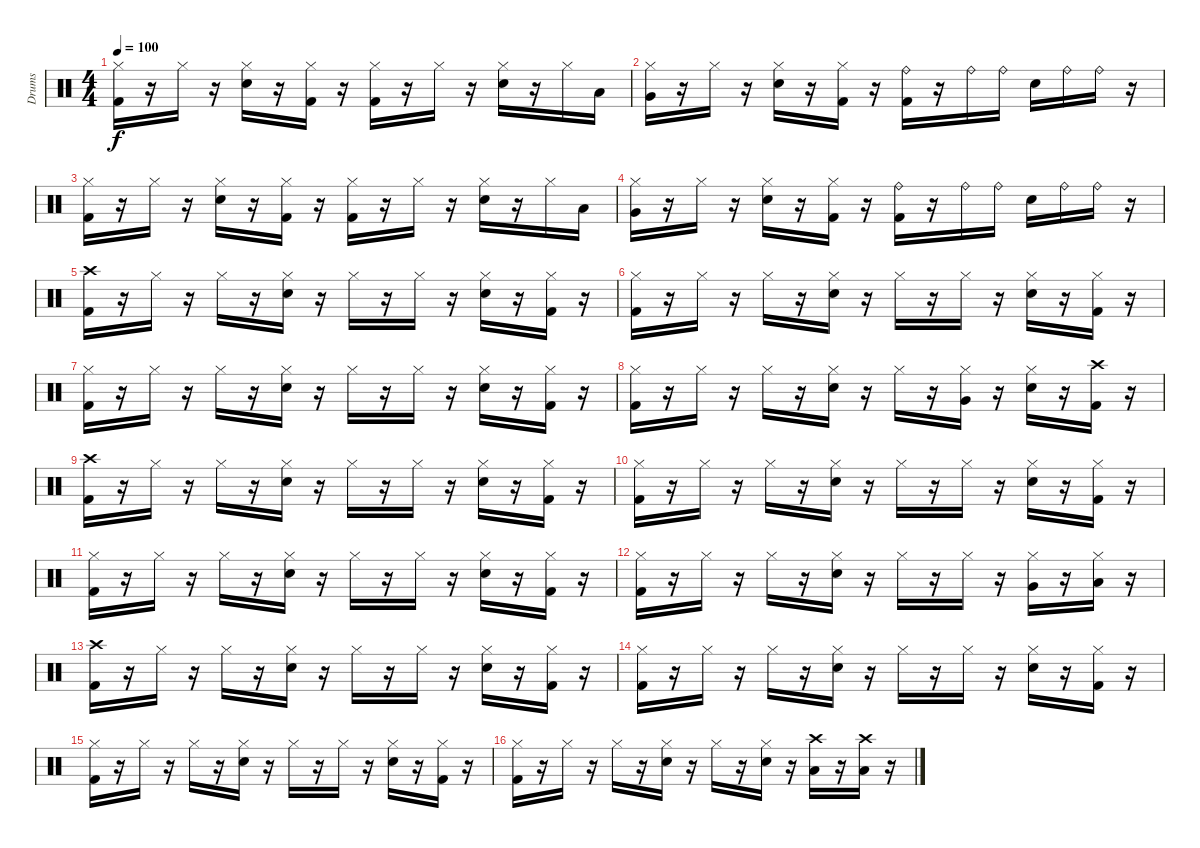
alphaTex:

\track ("Drums" "Drums") {instrument percussion}
\staff {score}
\articulation defaults
\ts (4 4)
\tempo 100
\clef neutral
\ks c
("Hi-Hat (closed)" "Kick (hit) 2").16{dy f} r.16 "Hi-Hat (closed)".16 r.16 ("Hi-Hat (closed)" "Snare (hit) 2").16 r.16 ("Hi-Hat (closed)" "Kick (hit) 2").16 r.16 ("Hi-Hat (closed)" "Kick (hit) 2").16 r.16 "Hi-Hat (closed)".16 r.16 ("Hi-Hat (closed)" "Snare (hit) 2").16 r.16 "Hi-Hat (closed)".16 "Low Floor Tom (hit)".16 |
("Hi-Hat (closed)" "Very Low Tom (hit)").16 r.16 "Hi-Hat (closed)".16 r.16 ("Hi-Hat (closed)" "Snare (hit) 2").16 r.16 ("Hi-Hat (closed)" "Kick (hit) 2").16 r.16 ("Ride (bell)" "Kick (hit) 2").16 r.16 "Ride (bell)".16 "Ride (bell)".16 "Snare (hit) 2".16 "Ride (bell)".16 "Ride (bell)".16 r.16 |
("Hi-Hat (closed)" "Kick (hit) 2").16 r.16 "Hi-Hat (closed)".16 r.16 ("Hi-Hat (closed)" "Snare (hit) 2").16 r.16 ("Hi-Hat (closed)" "Kick (hit) 2").16 r.16 ("Hi-Hat (closed)" "Kick (hit) 2").16 r.16 "Hi-Hat (closed)".16 r.16 ("Hi-Hat (closed)" "Snare (hit) 2").16 r.16 "Hi-Hat (closed)".16 "Low Floor Tom (hit)".16 |
("Hi-Hat (closed)" "Very Low Tom (hit)").16 r.16 "Hi-Hat (closed)".16 r.16 ("Hi-Hat (closed)" "Snare (hit) 2").16 r.16 ("Hi-Hat (closed)" "Kick (hit) 2").16 r.16 ("Ride (bell)" "Kick (hit) 2").16 r.16 "Ride (bell)".16 "Ride (bell)".16 "Snare (hit) 2".16 "Ride (bell)".16 "Ride (bell)".16 r.16 |
("Crash high (hit)" "Kick (hit) 2").16 r.16 "Hi-Hat (closed)".16 r.16 "Hi-Hat (closed)".16 r.16 ("Hi-Hat (closed)" "Snare (hit) 2").16 r.16 "Hi-Hat (closed)".16 r.16 "Hi-Hat (closed)".16 r.16 ("Hi-Hat (closed)" "Snare (hit) 2").16 r.16 ("Hi-Hat (closed)" "Kick (hit) 2").16 r.16 |
("Hi-Hat (closed)" "Kick (hit) 2").16 r.16 "Hi-Hat (closed)".16 r.16 "Hi-Hat (closed)".16 r.16 ("Hi-Hat (closed)" "Snare (hit) 2").16 r.16 "Hi-Hat (closed)".16 r.16 "Hi-Hat (closed)".16 r.16 ("Hi-Hat (closed)" "Snare (hit) 2").16 r.16 ("Hi-Hat (closed)" "Kick (hit) 2").16 r.16 |
("Hi-Hat (closed)" "Kick (hit) 2").16 r.16 "Hi-Hat (closed)".16 r.16 "Hi-Hat (closed)".16 r.16 ("Hi-Hat (closed)" "Snare (hit) 2").16 r.16 "Hi-Hat (closed)".16 r.16 "Hi-Hat (closed)".16 r.16 ("Hi-Hat (closed)" "Snare (hit) 2").16 r.16 ("Hi-Hat (closed)" "Kick (hit) 2").16 r.16 |
("Hi-Hat (closed)" "Kick (hit) 2").16 r.16 "Hi-Hat (closed)".16 r.16 "Hi-Hat (closed)".16 r.16 ("Hi-Hat (closed)" "Snare (hit) 2").16 r.16 "Hi-Hat (closed)".16 r.16 ("Hi-Hat (closed)" "Very Low Tom (hit)").16 r.16 ("Hi-Hat (closed)" "Snare (hit) 2").16 r.16 ("Crash high (hit)" "Kick (hit) 2").16 r.16 |
("Crash high (hit)" "Kick (hit) 2").16 r.16 "Hi-Hat (closed)".16 r.16 "Hi-Hat (closed)".16 r.16 ("Hi-Hat (closed)" "Snare (hit) 2").16 r.16 "Hi-Hat (closed)".16 r.16 "Hi-Hat (closed)".16 r.16 ("Hi-Hat (closed)" "Snare (hit) 2").16 r.16 ("Hi-Hat (closed)" "Kick (hit) 2").16 r.16 |
("Hi-Hat (closed)" "Kick (hit) 2").16 r.16 "Hi-Hat (closed)".16 r.16 "Hi-Hat (closed)".16 r.16 ("Hi-Hat (closed)" "Snare (hit) 2").16 r.16 "Hi-Hat (closed)".16 r.16 "Hi-Hat (closed)".16 r.16 ("Hi-Hat (closed)" "Snare (hit) 2").16 r.16 ("Hi-Hat (closed)" "Kick (hit) 2").16 r.16 |
("Hi-Hat (closed)" "Kick (hit) 2").16 r.16 "Hi-Hat (closed)".16 r.16 "Hi-Hat (closed)".16 r.16 ("Hi-Hat (closed)" "Snare (hit) 2").16 r.16 "Hi-Hat (closed)".16 r.16 "Hi-Hat (closed)".16 r.16 ("Hi-Hat (closed)" "Snare (hit) 2").16 r.16 ("Hi-Hat (closed)" "Kick (hit) 2").16 r.16 |
("Hi-Hat (closed)" "Kick (hit) 2").16 r.16 "Hi-Hat (closed)".16 r.16 "Hi-Hat (closed)".16 r.16 ("Hi-Hat (closed)" "Snare (hit) 2").16 r.16 "Hi-Hat (closed)".16 r.16 "Hi-Hat (closed)".16 r.16 ("Hi-Hat (closed)" "Very Low Tom (hit)").16 r.16 ("Hi-Hat (closed)" "Low Floor Tom (hit)").16 r.16 |
("Crash high (hit)" "Kick (hit) 2").16 r.16 "Hi-Hat (closed)".16 r.16 "Hi-Hat (closed)".16 r.16 ("Hi-Hat (closed)" "Snare (hit) 2").16 r.16 "Hi-Hat (closed)".16 r.16 "Hi-Hat (closed)".16 r.16 ("Hi-Hat (closed)" "Snare (hit) 2").16 r.16 ("Hi-Hat (closed)" "Kick (hit) 2").16 r.16 |
("Hi-Hat (closed)" "Kick (hit) 2").16 r.16 "Hi-Hat (closed)".16 r.16 "Hi-Hat (closed)".16 r.16 ("Hi-Hat (closed)" "Snare (hit) 2").16 r.16 "Hi-Hat (closed)".16 r.16 "Hi-Hat (closed)".16 r.16 ("Hi-Hat (closed)" "Snare (hit) 2").16 r.16 ("Hi-Hat (closed)" "Kick (hit) 2").16 r.16 |
("Hi-Hat (closed)" "Kick (hit) 2").16 r.16 "Hi-Hat (closed)".16 r.16 "Hi-Hat (closed)".16 r.16 ("Hi-Hat (closed)" "Snare (hit) 2").16 r.16 "Hi-Hat (closed)".16 r.16 "Hi-Hat (closed)".16 r.16 ("Hi-Hat (closed)" "Snare (hit) 2").16 r.16 ("Hi-Hat (closed)" "Kick (hit) 2").16 r.16 |
("Hi-Hat (closed)" "Kick (hit) 2").16 r.16 "Hi-Hat (closed)".16 r.16 "Hi-Hat (closed)".16 r.16 ("Hi-Hat (closed)" "Snare (hit) 2").16 r.16 "Hi-Hat (closed)".16 r.16 ("Hi-Hat (closed)" "Snare (hit) 2").16 r.16 ("Crash high (hit)" "Low Floor Tom (hit)").16 r.16 ("Crash high (hit)" "Low Floor Tom (hit)").16 r.16
